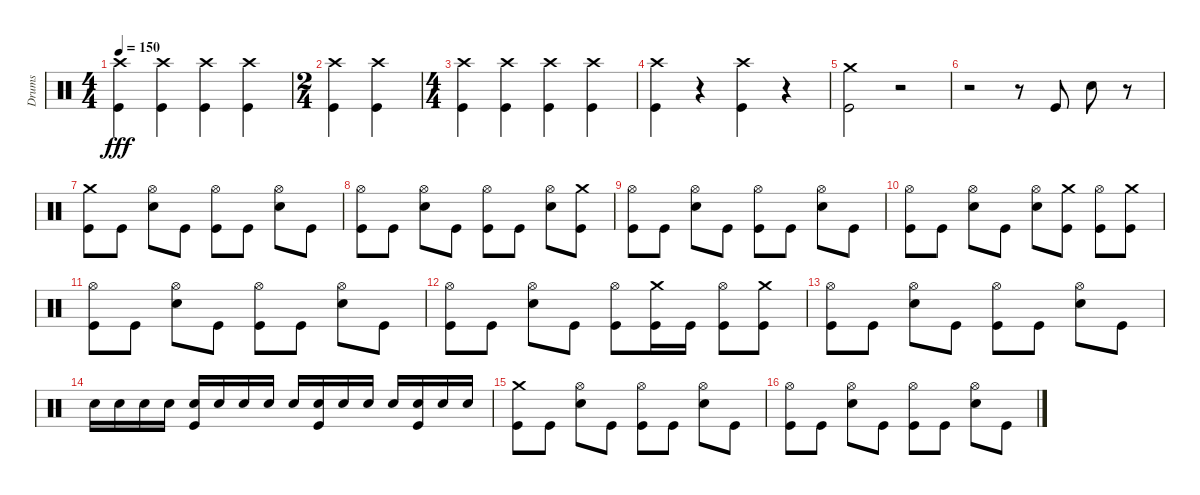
\track ("Drums" "Drums") {instrument percussion}
\staff {score}
\articulation defaults
\ts (4 4)
\tempo 150
\clef neutral
\ks c
("Kick (hit)" "Crash high (hit)").4{dy fff} ("Kick (hit)" "Crash high (hit)").4 ("Kick (hit)" "Crash high (hit)").4 ("Kick (hit)" "Crash high (hit)").4 |
\ts (2 4)
("Kick (hit)" "Crash high (hit)").4 ("Kick (hit)" "Crash high (hit)").4 |
\ts (4 4)
("Kick (hit)" "Crash high (hit)").4 ("Kick (hit)" "Crash high (hit)").4 ("Kick (hit)" "Crash high (hit)").4 ("Kick (hit)" "Crash high (hit)").4 |
("Kick (hit)" "Crash high (hit)").4 r.4 ("Kick (hit)" "Crash high (hit)").4 r.4 |
("Kick (hit)" "Crash medium (hit)").2 r.2 |
r.2 r.8 "Kick (hit)".8 "Snare (hit) 2".8 r.8 |
("Crash medium (hit)" "Kick (hit)").8 "Kick (hit)".8 ("Hi-Hat (open)" "Snare (hit) 2").8 "Kick (hit)".8 ("Hi-Hat (open)" "Kick (hit)").8 "Kick (hit)".8 ("Hi-Hat (open)" "Snare (hit) 2").8 "Kick (hit)".8 |
("Hi-Hat (open)" "Kick (hit)").8 "Kick (hit)".8 ("Hi-Hat (open)" "Snare (hit) 2").8 "Kick (hit)".8 ("Hi-Hat (open)" "Kick (hit)").8 "Kick (hit)".8 ("Snare (hit) 2" "Hi-Hat (open)").8 ("Crash medium (hit)" "Kick (hit)").8 |
("Hi-Hat (open)" "Kick (hit)").8 "Kick (hit)".8 ("Hi-Hat (open)" "Snare (hit) 2").8 "Kick (hit)".8 ("Hi-Hat (open)" "Kick (hit)").8 "Kick (hit)".8 ("Hi-Hat (open)" "Snare (hit) 2").8 "Kick (hit)".8 |
("Hi-Hat (open)" "Kick (hit)").8 "Kick (hit)".8 ("Hi-Hat (open)" "Snare (hit) 2").8 "Kick (hit)".8 ("Snare (hit) 2" "Hi-Hat (open)").8 ("Crash medium (hit)" "Kick (hit)").8 ("Kick (hit)" "Hi-Hat (open)").8 ("Crash medium (hit)" "Kick (hit)").8 |
("Hi-Hat (open)" "Kick (hit)").8 "Kick (hit)".8 ("Hi-Hat (open)" "Snare (hit) 2").8 "Kick (hit)".8 ("Hi-Hat (open)" "Kick (hit)").8 "Kick (hit)".8 ("Hi-Hat (open)" "Snare (hit) 2").8 "Kick (hit)".8 |
("Hi-Hat (open)" "Kick (hit)").8 "Kick (hit)".8 ("Hi-Hat (open)" "Snare (hit) 2").8 "Kick (hit)".8 ("Hi-Hat (open)" "Kick (hit)").8 ("Crash medium (hit)" "Kick (hit)").16 "Kick (hit)".16 ("Kick (hit)" "Hi-Hat (open)").8 ("Crash medium (hit)" "Kick (hit)").8 |
("Hi-Hat (open)" "Kick (hit)").8 "Kick (hit)".8 ("Hi-Hat (open)" "Snare (hit) 2").8 "Kick (hit)".8 ("Hi-Hat (open)" "Kick (hit)").8 "Kick (hit)".8 ("Hi-Hat (open)" "Snare (hit) 2").8 "Kick (hit)".8 |
"Snare (hit) 2".16 "Snare (hit) 2".16 "Snare (hit) 2".16 "Snare (hit) 2".16 ("Kick (hit)" "Snare (hit) 2").16 "Snare (hit) 2".16 "Snare (hit) 2".16 "Snare (hit) 2".16 "Snare (hit) 2".16 ("Kick (hit)" "Snare (hit) 2").16 "Snare (hit) 2".16 "Snare (hit) 2".16 "Snare (hit) 2".16 ("Kick (hit)" "Snare (hit) 2").16 "Snare (hit) 2".16 "Snare (hit) 2".16 |
("Crash medium (hit)" "Kick (hit)").8 "Kick (hit)".8 ("Hi-Hat (open)" "Snare (hit) 2").8 "Kick (hit)".8 ("Hi-Hat (open)" "Kick (hit)").8 "Kick (hit)".8 ("Hi-Hat (open)" "Snare (hit) 2").8 "Kick (hit)".8 |
("Hi-Hat (open)" "Kick (hit)").8 "Kick (hit)".8 ("Hi-Hat (open)" "Snare (hit) 2").8 "Kick (hit)".8 ("Hi-Hat (open)" "Kick (hit)").8 "Kick (hit)".8 ("Hi-Hat (open)" "Snare (hit) 2").8 "Kick (hit)".8
